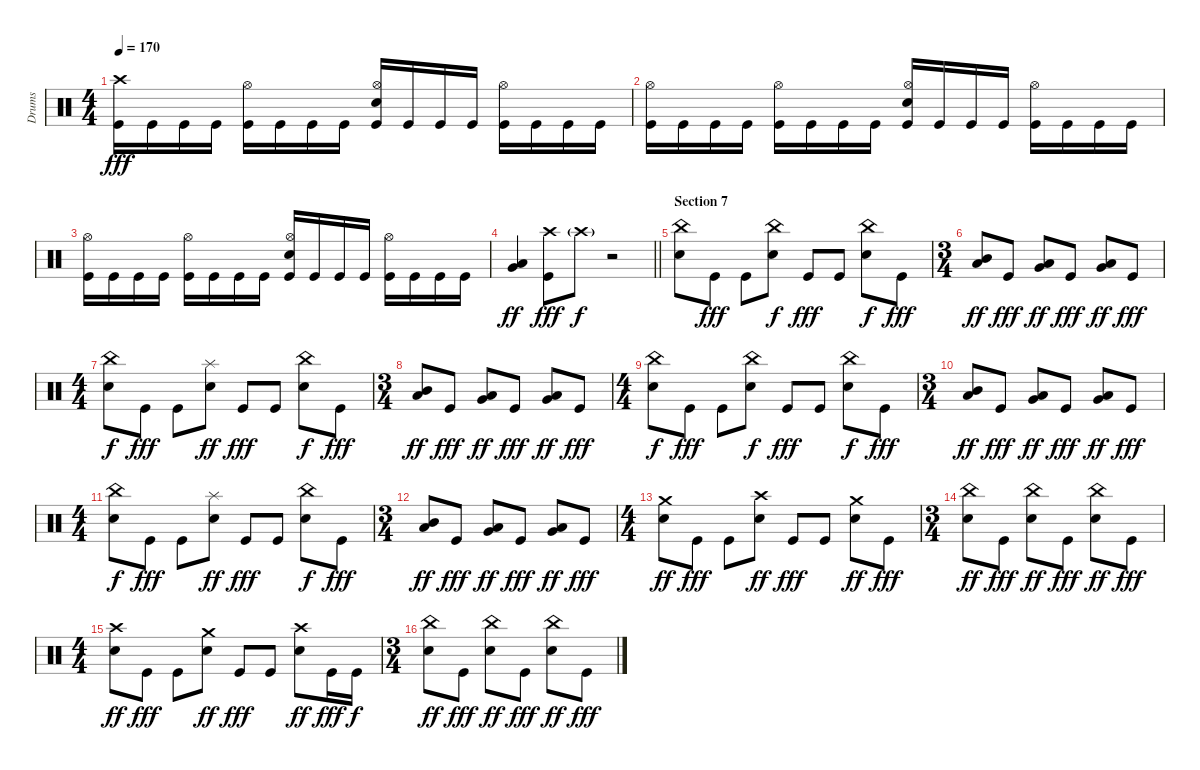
\track ("Drums" "Drums") {instrument percussion}
\staff {score}
\articulation defaults
\ts (4 4)
\tempo 170
\clef neutral
\ks c
("Crash high (hit)" "Kick (hit)").16{dy fff} "Kick (hit)".16 "Kick (hit)".16 "Kick (hit)".16 ("Hi-Hat (open)" "Kick (hit)").16 "Kick (hit)".16 "Kick (hit)".16 "Kick (hit)".16 ("Hi-Hat (open)" "Snare (hit) 2" "Kick (hit)").16 "Kick (hit)".16 "Kick (hit)".16 "Kick (hit)".16 ("Hi-Hat (open)" "Kick (hit)").16 "Kick (hit)".16 "Kick (hit)".16 "Kick (hit)".16 |
("Hi-Hat (open)" "Kick (hit)").16 "Kick (hit)".16 "Kick (hit)".16 "Kick (hit)".16 ("Hi-Hat (open)" "Kick (hit)").16 "Kick (hit)".16 "Kick (hit)".16 "Kick (hit)".16 ("Hi-Hat (open)" "Snare (hit) 2" "Kick (hit)").16 "Kick (hit)".16 "Kick (hit)".16 "Kick (hit)".16 ("Hi-Hat (open)" "Kick (hit)").16 "Kick (hit)".16 "Kick (hit)".16 "Kick (hit)".16 |
("Hi-Hat (open)" "Kick (hit)").16 "Kick (hit)".16 "Kick (hit)".16 "Kick (hit)".16 ("Hi-Hat (open)" "Kick (hit)").16 "Kick (hit)".16 "Kick (hit)".16 "Kick (hit)".16 ("Hi-Hat (open)" "Snare (hit) 2" "Kick (hit)").16 "Kick (hit)".16 "Kick (hit)".16 "Kick (hit)".16 ("Hi-Hat (open)" "Kick (hit)").16 "Kick (hit)".16 "Kick (hit)".16 "Kick (hit)".16 |
\barLineRight lightlight
("Low Tom (hit)" "Very Low Tom (hit)").4{bd 120 dy ff} ("Crash high (hit)" "Kick (hit)").8{dy fff} "Crash high (hit)"{g}.8{dy f volume 0} r.2 |
\section ("" "Section 7")
("China (hit)" "Snare (hit) 2").8{volume 13} "Kick (hit)".8{dy fff} "Kick (hit)".8 ("China (hit)" "Snare (hit) 2").8{dy f} "Kick (hit)".8{dy fff} "Kick (hit)".8 ("China (hit)" "Snare (hit) 2").8{dy f} "Kick (hit)".8{dy fff} |
\ts (3 4)
("Mid Tom (hit)" "Low Tom (hit)").8{bd 120 dy ff} "Kick (hit)".8{dy fff} ("Low Tom (hit)" "Very Low Tom (hit)").8{bd 120 dy ff} "Kick (hit)".8{dy fff} ("Very Low Tom (hit)" "Low Floor Tom (hit)").8{bd 120 dy ff} "Kick (hit)".8{dy fff} |
\ts (4 4)
("China (hit)" "Snare (hit) 2").8{dy f} "Kick (hit)".8{dy fff} "Kick (hit)".8 ("Splash (hit)" "Snare (hit) 2").8{dy ff} "Kick (hit)".8{dy fff} "Kick (hit)".8 ("China (hit)" "Snare (hit) 2").8{dy f} "Kick (hit)".8{dy fff} |
\ts (3 4)
("Mid Tom (hit)" "Low Tom (hit)").8{bd 120 dy ff} "Kick (hit)".8{dy fff} ("Low Tom (hit)" "Very Low Tom (hit)").8{bd 120 dy ff} "Kick (hit)".8{dy fff} ("Very Low Tom (hit)" "Low Floor Tom (hit)").8{bd 120 dy ff} "Kick (hit)".8{dy fff} |
\ts (4 4)
("China (hit)" "Snare (hit) 2").8{dy f} "Kick (hit)".8{dy fff} "Kick (hit)".8 ("China (hit)" "Snare (hit) 2").8{dy f} "Kick (hit)".8{dy fff} "Kick (hit)".8 ("China (hit)" "Snare (hit) 2").8{dy f} "Kick (hit)".8{dy fff} |
\ts (3 4)
("Mid Tom (hit)" "Low Tom (hit)").8{bd 120 dy ff} "Kick (hit)".8{dy fff} ("Low Tom (hit)" "Very Low Tom (hit)").8{bd 120 dy ff} "Kick (hit)".8{dy fff} ("Very Low Tom (hit)" "Low Floor Tom (hit)").8{bd 120 dy ff} "Kick (hit)".8{dy fff} |
\ts (4 4)
("China (hit)" "Snare (hit) 2").8{dy f} "Kick (hit)".8{dy fff} "Kick (hit)".8 ("Splash (hit)" "Snare (hit) 2").8{dy ff} "Kick (hit)".8{dy fff} "Kick (hit)".8 ("China (hit)" "Snare (hit) 2").8{dy f} "Kick (hit)".8{dy fff} |
\ts (3 4)
("Mid Tom (hit)" "Low Tom (hit)").8{bd 120 dy ff} "Kick (hit)".8{dy fff} ("Low Tom (hit)" "Very Low Tom (hit)").8{bd 120 dy ff} "Kick (hit)".8{dy fff} ("Very Low Tom (hit)" "Low Floor Tom (hit)").8{bd 120 dy ff} "Kick (hit)".8{dy fff} |
\ts (4 4)
("Crash medium (hit)" "Snare (hit) 2").8{dy ff} "Kick (hit)".8{dy fff} "Kick (hit)".8 ("Crash high (hit)" "Snare (hit) 2").8{dy ff} "Kick (hit)".8{dy fff} "Kick (hit)".8 ("Crash medium (hit)" "Snare (hit) 2").8{dy ff} "Kick (hit)".8{dy fff} |
\ts (3 4)
("China (hit)" "Snare (hit) 2").8{dy ff} "Kick (hit)".8{dy fff} ("China (hit)" "Snare (hit) 2").8{dy ff} "Kick (hit)".8{dy fff} ("China (hit)" "Snare (hit) 2").8{dy ff} "Kick (hit)".8{dy fff} |
\ts (4 4)
("Crash high (hit)" "Snare (hit) 2").8{dy ff} "Kick (hit)".8{dy fff} "Kick (hit)".8 ("Crash medium (hit)" "Snare (hit) 2").8{dy ff} "Kick (hit)".8{dy fff} "Kick (hit)".8 ("Crash high (hit)" "Snare (hit) 2").8{dy ff} "Kick (hit)".16{dy fff} "Kick (hit)".16{dy f} |
\ts (3 4)
("China (hit)" "Snare (hit) 2").8{dy ff} "Kick (hit)".8{dy fff} ("China (hit)" "Snare (hit) 2").8{dy ff} "Kick (hit)".8{dy fff} ("China (hit)" "Snare (hit) 2").8{dy ff} "Kick (hit)".8{dy fff}
